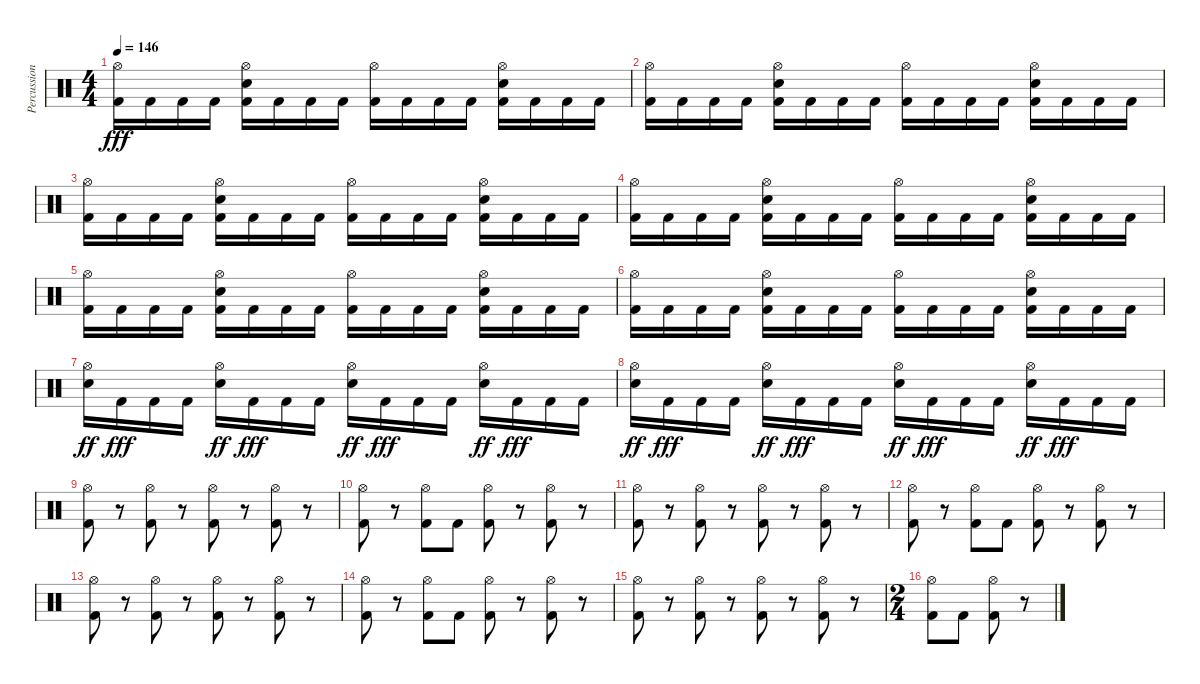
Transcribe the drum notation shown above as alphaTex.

\track ("Percussions" "Percussion") {instrument percussion}
\staff {score}
\articulation defaults
\ts (4 4)
\tempo 146
\clef neutral
\ks c
("Hi-Hat (open)" "Kick (hit) 2").16{dy fff} "Kick (hit) 2".16 "Kick (hit) 2".16 "Kick (hit) 2".16 ("Hi-Hat (open)" "Snare (hit) 2" "Kick (hit) 2").16 "Kick (hit) 2".16 "Kick (hit) 2".16 "Kick (hit) 2".16 ("Hi-Hat (open)" "Kick (hit) 2").16 "Kick (hit) 2".16 "Kick (hit) 2".16 "Kick (hit) 2".16 ("Hi-Hat (open)" "Snare (hit) 2" "Kick (hit) 2").16 "Kick (hit) 2".16 "Kick (hit) 2".16 "Kick (hit) 2".16 |
("Hi-Hat (open)" "Kick (hit) 2").16 "Kick (hit) 2".16 "Kick (hit) 2".16 "Kick (hit) 2".16 ("Hi-Hat (open)" "Snare (hit) 2" "Kick (hit) 2").16 "Kick (hit) 2".16 "Kick (hit) 2".16 "Kick (hit) 2".16 ("Hi-Hat (open)" "Kick (hit) 2").16 "Kick (hit) 2".16 "Kick (hit) 2".16 "Kick (hit) 2".16 ("Hi-Hat (open)" "Snare (hit) 2" "Kick (hit) 2").16 "Kick (hit) 2".16 "Kick (hit) 2".16 "Kick (hit) 2".16 |
("Hi-Hat (open)" "Kick (hit) 2").16 "Kick (hit) 2".16 "Kick (hit) 2".16 "Kick (hit) 2".16 ("Hi-Hat (open)" "Snare (hit) 2" "Kick (hit) 2").16 "Kick (hit) 2".16 "Kick (hit) 2".16 "Kick (hit) 2".16 ("Hi-Hat (open)" "Kick (hit) 2").16 "Kick (hit) 2".16 "Kick (hit) 2".16 "Kick (hit) 2".16 ("Hi-Hat (open)" "Snare (hit) 2" "Kick (hit) 2").16 "Kick (hit) 2".16 "Kick (hit) 2".16 "Kick (hit) 2".16 |
("Hi-Hat (open)" "Kick (hit) 2").16 "Kick (hit) 2".16 "Kick (hit) 2".16 "Kick (hit) 2".16 ("Hi-Hat (open)" "Snare (hit) 2" "Kick (hit) 2").16 "Kick (hit) 2".16 "Kick (hit) 2".16 "Kick (hit) 2".16 ("Hi-Hat (open)" "Kick (hit) 2").16 "Kick (hit) 2".16 "Kick (hit) 2".16 "Kick (hit) 2".16 ("Hi-Hat (open)" "Snare (hit) 2" "Kick (hit) 2").16 "Kick (hit) 2".16 "Kick (hit) 2".16 "Kick (hit) 2".16 |
("Hi-Hat (open)" "Kick (hit) 2").16 "Kick (hit) 2".16 "Kick (hit) 2".16 "Kick (hit) 2".16 ("Hi-Hat (open)" "Snare (hit) 2" "Kick (hit) 2").16 "Kick (hit) 2".16 "Kick (hit) 2".16 "Kick (hit) 2".16 ("Hi-Hat (open)" "Kick (hit) 2").16 "Kick (hit) 2".16 "Kick (hit) 2".16 "Kick (hit) 2".16 ("Hi-Hat (open)" "Snare (hit) 2" "Kick (hit) 2").16 "Kick (hit) 2".16 "Kick (hit) 2".16 "Kick (hit) 2".16 |
("Hi-Hat (open)" "Kick (hit) 2").16 "Kick (hit) 2".16 "Kick (hit) 2".16 "Kick (hit) 2".16 ("Hi-Hat (open)" "Snare (hit) 2" "Kick (hit) 2").16 "Kick (hit) 2".16 "Kick (hit) 2".16 "Kick (hit) 2".16 ("Hi-Hat (open)" "Kick (hit) 2").16 "Kick (hit) 2".16 "Kick (hit) 2".16 "Kick (hit) 2".16 ("Hi-Hat (open)" "Snare (hit) 2" "Kick (hit) 2").16 "Kick (hit) 2".16 "Kick (hit) 2".16 "Kick (hit) 2".16 |
("Hi-Hat (open)" "Snare (hit) 2").16{dy ff} "Kick (hit) 2".16{dy fff} "Kick (hit) 2".16 "Kick (hit) 2".16 ("Hi-Hat (open)" "Snare (hit) 2").16{dy ff} "Kick (hit) 2".16{dy fff} "Kick (hit) 2".16 "Kick (hit) 2".16 ("Hi-Hat (open)" "Snare (hit) 2").16{dy ff} "Kick (hit) 2".16{dy fff} "Kick (hit) 2".16 "Kick (hit) 2".16 ("Hi-Hat (open)" "Snare (hit) 2").16{dy ff} "Kick (hit) 2".16{dy fff} "Kick (hit) 2".16 "Kick (hit) 2".16 |
("Hi-Hat (open)" "Snare (hit) 2").16{dy ff} "Kick (hit) 2".16{dy fff} "Kick (hit) 2".16 "Kick (hit) 2".16 ("Hi-Hat (open)" "Snare (hit) 2").16{dy ff} "Kick (hit) 2".16{dy fff} "Kick (hit) 2".16 "Kick (hit) 2".16 ("Hi-Hat (open)" "Snare (hit) 2").16{dy ff} "Kick (hit) 2".16{dy fff} "Kick (hit) 2".16 "Kick (hit) 2".16 ("Hi-Hat (open)" "Snare (hit) 2").16{dy ff} "Kick (hit) 2".16{dy fff} "Kick (hit) 2".16 "Kick (hit) 2".16 |
("Hi-Hat (open)" "Kick (hit) 2").8 r.8 ("Hi-Hat (open)" "Kick (hit) 2").8 r.8 ("Hi-Hat (open)" "Kick (hit) 2").8 r.8 ("Hi-Hat (open)" "Kick (hit) 2").8 r.8 |
("Hi-Hat (open)" "Kick (hit) 2").8 r.8 ("Hi-Hat (open)" "Kick (hit) 2").8 "Kick (hit) 2".8 ("Hi-Hat (open)" "Kick (hit) 2").8 r.8 ("Hi-Hat (open)" "Kick (hit) 2").8 r.8 |
("Hi-Hat (open)" "Kick (hit) 2").8 r.8 ("Hi-Hat (open)" "Kick (hit) 2").8 r.8 ("Hi-Hat (open)" "Kick (hit) 2").8 r.8 ("Hi-Hat (open)" "Kick (hit) 2").8 r.8 |
("Hi-Hat (open)" "Kick (hit) 2").8 r.8 ("Hi-Hat (open)" "Kick (hit) 2").8 "Kick (hit) 2".8 ("Hi-Hat (open)" "Kick (hit) 2").8 r.8 ("Hi-Hat (open)" "Kick (hit) 2").8 r.8 |
("Hi-Hat (open)" "Kick (hit) 2").8 r.8 ("Hi-Hat (open)" "Kick (hit) 2").8 r.8 ("Hi-Hat (open)" "Kick (hit) 2").8 r.8 ("Hi-Hat (open)" "Kick (hit) 2").8 r.8 |
("Hi-Hat (open)" "Kick (hit) 2").8 r.8 ("Hi-Hat (open)" "Kick (hit) 2").8 "Kick (hit) 2".8 ("Hi-Hat (open)" "Kick (hit) 2").8 r.8 ("Hi-Hat (open)" "Kick (hit) 2").8 r.8 |
("Hi-Hat (open)" "Kick (hit) 2").8 r.8 ("Hi-Hat (open)" "Kick (hit) 2").8 r.8 ("Hi-Hat (open)" "Kick (hit) 2").8 r.8 ("Hi-Hat (open)" "Kick (hit) 2").8 r.8 |
\ts (2 4)
("Hi-Hat (open)" "Kick (hit) 2").8 "Kick (hit) 2".8 ("Hi-Hat (open)" "Kick (hit) 2").8 r.8
